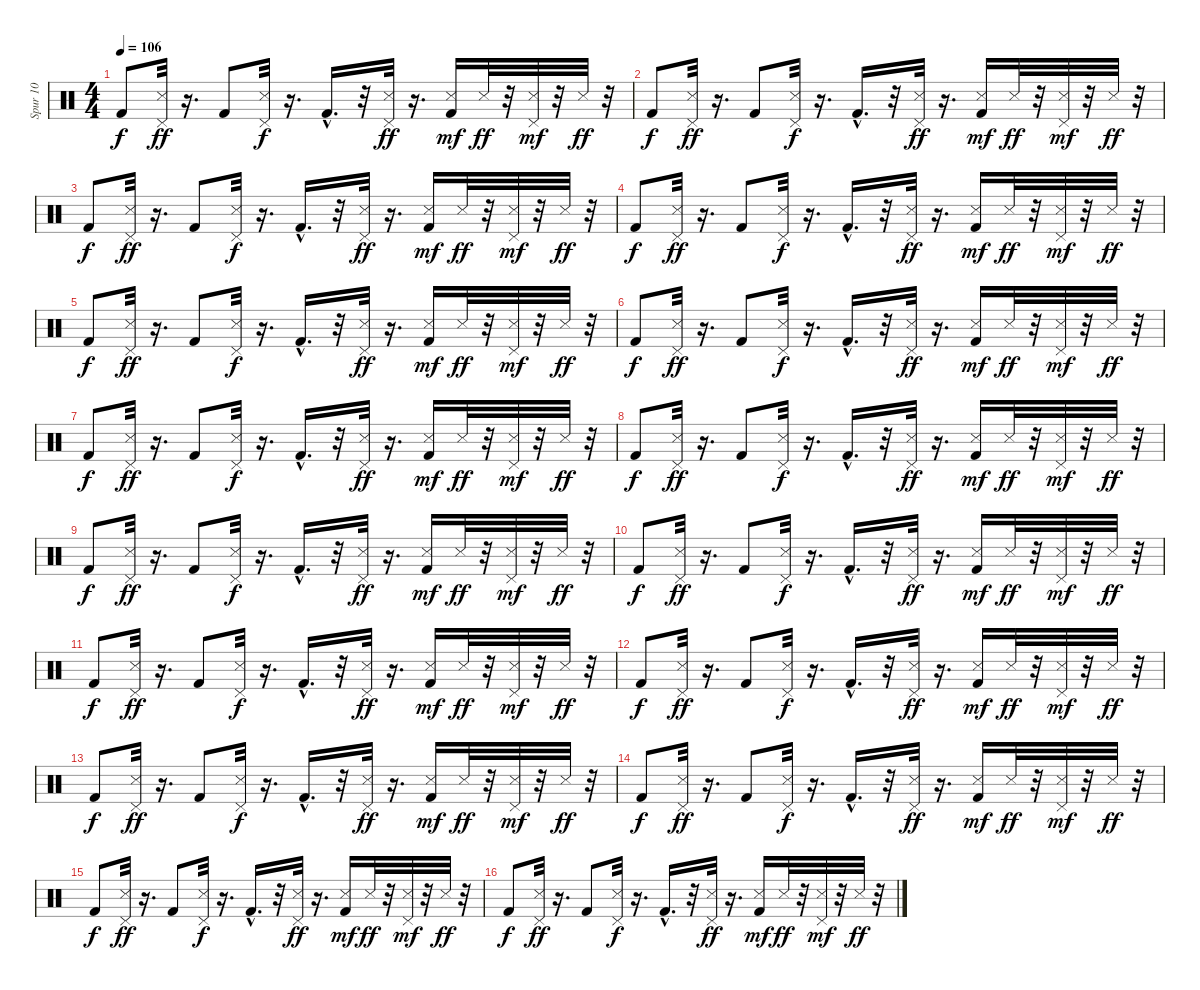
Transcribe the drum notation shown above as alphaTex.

\track ("Spur 10" "Spur 10") {instrument percussion}
\staff {score}
\articulation defaults
\ts (4 4)
\tempo 106
\clef neutral
\ks c "Kick (hit) 2".8{dy f}
("Pedal Hi-Hat (hit)" "Snare (side stick) 3").32{dy ff} r.16{d} "Kick (hit) 2".8 ("Pedal Hi-Hat (hit)" "Snare (side stick) 3").32{dy f} r.16{d} "Kick (hit) 2"{hac}.16{d} r.32 ("Pedal Hi-Hat (hit)" "Snare (side stick) 3").32{dy ff} r.16{d} ("Kick (hit) 2" "Snare (side stick) 3").16{dy mf} "Snare (side stick) 3".32{dy ff} r.32 ("Pedal Hi-Hat (hit)" "Snare (side stick) 3").32{dy mf} r.32 "Snare (side stick) 3".32{dy ff} r.32 |
"Kick (hit) 2".8{dy f} ("Pedal Hi-Hat (hit)" "Snare (side stick) 3").32{dy ff} r.16{d} "Kick (hit) 2".8 ("Pedal Hi-Hat (hit)" "Snare (side stick) 3").32{dy f} r.16{d} "Kick (hit) 2"{hac}.16{d} r.32 ("Pedal Hi-Hat (hit)" "Snare (side stick) 3").32{dy ff} r.16{d} ("Kick (hit) 2" "Snare (side stick) 3").16{dy mf} "Snare (side stick) 3".32{dy ff} r.32 ("Pedal Hi-Hat (hit)" "Snare (side stick) 3").32{dy mf} r.32 "Snare (side stick) 3".32{dy ff} r.32 |
"Kick (hit) 2".8{dy f} ("Pedal Hi-Hat (hit)" "Snare (side stick) 3").32{dy ff} r.16{d} "Kick (hit) 2".8 ("Pedal Hi-Hat (hit)" "Snare (side stick) 3").32{dy f} r.16{d} "Kick (hit) 2"{hac}.16{d} r.32 ("Pedal Hi-Hat (hit)" "Snare (side stick) 3").32{dy ff} r.16{d} ("Kick (hit) 2" "Snare (side stick) 3").16{dy mf} "Snare (side stick) 3".32{dy ff} r.32 ("Pedal Hi-Hat (hit)" "Snare (side stick) 3").32{dy mf} r.32 "Snare (side stick) 3".32{dy ff} r.32 |
"Kick (hit) 2".8{dy f} ("Pedal Hi-Hat (hit)" "Snare (side stick) 3").32{dy ff} r.16{d} "Kick (hit) 2".8 ("Pedal Hi-Hat (hit)" "Snare (side stick) 3").32{dy f} r.16{d} "Kick (hit) 2"{hac}.16{d} r.32 ("Pedal Hi-Hat (hit)" "Snare (side stick) 3").32{dy ff} r.16{d} ("Kick (hit) 2" "Snare (side stick) 3").16{dy mf} "Snare (side stick) 3".32{dy ff} r.32 ("Pedal Hi-Hat (hit)" "Snare (side stick) 3").32{dy mf} r.32 "Snare (side stick) 3".32{dy ff} r.32 |
"Kick (hit) 2".8{dy f} ("Pedal Hi-Hat (hit)" "Snare (side stick) 3").32{dy ff} r.16{d} "Kick (hit) 2".8 ("Pedal Hi-Hat (hit)" "Snare (side stick) 3").32{dy f} r.16{d} "Kick (hit) 2"{hac}.16{d} r.32 ("Pedal Hi-Hat (hit)" "Snare (side stick) 3").32{dy ff} r.16{d} ("Kick (hit) 2" "Snare (side stick) 3").16{dy mf} "Snare (side stick) 3".32{dy ff} r.32 ("Pedal Hi-Hat (hit)" "Snare (side stick) 3").32{dy mf} r.32 "Snare (side stick) 3".32{dy ff} r.32 |
"Kick (hit) 2".8{dy f} ("Pedal Hi-Hat (hit)" "Snare (side stick) 3").32{dy ff} r.16{d} "Kick (hit) 2".8 ("Pedal Hi-Hat (hit)" "Snare (side stick) 3").32{dy f} r.16{d} "Kick (hit) 2"{hac}.16{d} r.32 ("Pedal Hi-Hat (hit)" "Snare (side stick) 3").32{dy ff} r.16{d} ("Kick (hit) 2" "Snare (side stick) 3").16{dy mf} "Snare (side stick) 3".32{dy ff} r.32 ("Pedal Hi-Hat (hit)" "Snare (side stick) 3").32{dy mf} r.32 "Snare (side stick) 3".32{dy ff} r.32 |
"Kick (hit) 2".8{dy f} ("Pedal Hi-Hat (hit)" "Snare (side stick) 3").32{dy ff} r.16{d} "Kick (hit) 2".8 ("Pedal Hi-Hat (hit)" "Snare (side stick) 3").32{dy f} r.16{d} "Kick (hit) 2"{hac}.16{d} r.32 ("Pedal Hi-Hat (hit)" "Snare (side stick) 3").32{dy ff} r.16{d} ("Kick (hit) 2" "Snare (side stick) 3").16{dy mf} "Snare (side stick) 3".32{dy ff} r.32 ("Pedal Hi-Hat (hit)" "Snare (side stick) 3").32{dy mf} r.32 "Snare (side stick) 3".32{dy ff} r.32 |
"Kick (hit) 2".8{dy f} ("Pedal Hi-Hat (hit)" "Snare (side stick) 3").32{dy ff} r.16{d} "Kick (hit) 2".8 ("Pedal Hi-Hat (hit)" "Snare (side stick) 3").32{dy f} r.16{d} "Kick (hit) 2"{hac}.16{d} r.32 ("Pedal Hi-Hat (hit)" "Snare (side stick) 3").32{dy ff} r.16{d} ("Kick (hit) 2" "Snare (side stick) 3").16{dy mf} "Snare (side stick) 3".32{dy ff} r.32 ("Pedal Hi-Hat (hit)" "Snare (side stick) 3").32{dy mf} r.32 "Snare (side stick) 3".32{dy ff} r.32 |
"Kick (hit) 2".8{dy f} ("Pedal Hi-Hat (hit)" "Snare (side stick) 3").32{dy ff} r.16{d} "Kick (hit) 2".8 ("Pedal Hi-Hat (hit)" "Snare (side stick) 3").32{dy f} r.16{d} "Kick (hit) 2"{hac}.16{d} r.32 ("Pedal Hi-Hat (hit)" "Snare (side stick) 3").32{dy ff} r.16{d} ("Kick (hit) 2" "Snare (side stick) 3").16{dy mf} "Snare (side stick) 3".32{dy ff} r.32 ("Pedal Hi-Hat (hit)" "Snare (side stick) 3").32{dy mf} r.32 "Snare (side stick) 3".32{dy ff} r.32 |
"Kick (hit) 2".8{dy f} ("Pedal Hi-Hat (hit)" "Snare (side stick) 3").32{dy ff} r.16{d} "Kick (hit) 2".8 ("Pedal Hi-Hat (hit)" "Snare (side stick) 3").32{dy f} r.16{d} "Kick (hit) 2"{hac}.16{d} r.32 ("Pedal Hi-Hat (hit)" "Snare (side stick) 3").32{dy ff} r.16{d} ("Kick (hit) 2" "Snare (side stick) 3").16{dy mf} "Snare (side stick) 3".32{dy ff} r.32 ("Pedal Hi-Hat (hit)" "Snare (side stick) 3").32{dy mf} r.32 "Snare (side stick) 3".32{dy ff} r.32 |
"Kick (hit) 2".8{dy f} ("Pedal Hi-Hat (hit)" "Snare (side stick) 3").32{dy ff} r.16{d} "Kick (hit) 2".8 ("Pedal Hi-Hat (hit)" "Snare (side stick) 3").32{dy f} r.16{d} "Kick (hit) 2"{hac}.16{d} r.32 ("Pedal Hi-Hat (hit)" "Snare (side stick) 3").32{dy ff} r.16{d} ("Kick (hit) 2" "Snare (side stick) 3").16{dy mf} "Snare (side stick) 3".32{dy ff} r.32 ("Pedal Hi-Hat (hit)" "Snare (side stick) 3").32{dy mf} r.32 "Snare (side stick) 3".32{dy ff} r.32 |
"Kick (hit) 2".8{dy f} ("Pedal Hi-Hat (hit)" "Snare (side stick) 3").32{dy ff} r.16{d} "Kick (hit) 2".8 ("Pedal Hi-Hat (hit)" "Snare (side stick) 3").32{dy f} r.16{d} "Kick (hit) 2"{hac}.16{d} r.32 ("Pedal Hi-Hat (hit)" "Snare (side stick) 3").32{dy ff} r.16{d} ("Kick (hit) 2" "Snare (side stick) 3").16{dy mf} "Snare (side stick) 3".32{dy ff} r.32 ("Pedal Hi-Hat (hit)" "Snare (side stick) 3").32{dy mf} r.32 "Snare (side stick) 3".32{dy ff} r.32 |
"Kick (hit) 2".8{dy f} ("Pedal Hi-Hat (hit)" "Snare (side stick) 3").32{dy ff} r.16{d} "Kick (hit) 2".8 ("Pedal Hi-Hat (hit)" "Snare (side stick) 3").32{dy f} r.16{d} "Kick (hit) 2"{hac}.16{d} r.32 ("Pedal Hi-Hat (hit)" "Snare (side stick) 3").32{dy ff} r.16{d} ("Kick (hit) 2" "Snare (side stick) 3").16{dy mf} "Snare (side stick) 3".32{dy ff} r.32 ("Pedal Hi-Hat (hit)" "Snare (side stick) 3").32{dy mf} r.32 "Snare (side stick) 3".32{dy ff} r.32 |
"Kick (hit) 2".8{dy f} ("Pedal Hi-Hat (hit)" "Snare (side stick) 3").32{dy ff} r.16{d} "Kick (hit) 2".8 ("Pedal Hi-Hat (hit)" "Snare (side stick) 3").32{dy f} r.16{d} "Kick (hit) 2"{hac}.16{d} r.32 ("Pedal Hi-Hat (hit)" "Snare (side stick) 3").32{dy ff} r.16{d} ("Kick (hit) 2" "Snare (side stick) 3").16{dy mf} "Snare (side stick) 3".32{dy ff} r.32 ("Pedal Hi-Hat (hit)" "Snare (side stick) 3").32{dy mf} r.32 "Snare (side stick) 3".32{dy ff} r.32 |
"Kick (hit) 2".8{dy f} ("Pedal Hi-Hat (hit)" "Snare (side stick) 3").32{dy ff} r.16{d} "Kick (hit) 2".8 ("Pedal Hi-Hat (hit)" "Snare (side stick) 3").32{dy f} r.16{d} "Kick (hit) 2"{hac}.16{d} r.32 ("Pedal Hi-Hat (hit)" "Snare (side stick) 3").32{dy ff} r.16{d} ("Kick (hit) 2" "Snare (side stick) 3").16{dy mf} "Snare (side stick) 3".32{dy ff} r.32 ("Pedal Hi-Hat (hit)" "Snare (side stick) 3").32{dy mf} r.32 "Snare (side stick) 3".32{dy ff} r.32 |
"Kick (hit) 2".8{dy f} ("Pedal Hi-Hat (hit)" "Snare (side stick) 3").32{dy ff} r.16{d} "Kick (hit) 2".8 ("Pedal Hi-Hat (hit)" "Snare (side stick) 3").32{dy f} r.16{d} "Kick (hit) 2"{hac}.16{d} r.32 ("Pedal Hi-Hat (hit)" "Snare (side stick) 3").32{dy ff} r.16{d} ("Kick (hit) 2" "Snare (side stick) 3").16{dy mf} "Snare (side stick) 3".32{dy ff} r.32 ("Pedal Hi-Hat (hit)" "Snare (side stick) 3").32{dy mf} r.32 "Snare (side stick) 3".32{dy ff} r.32
